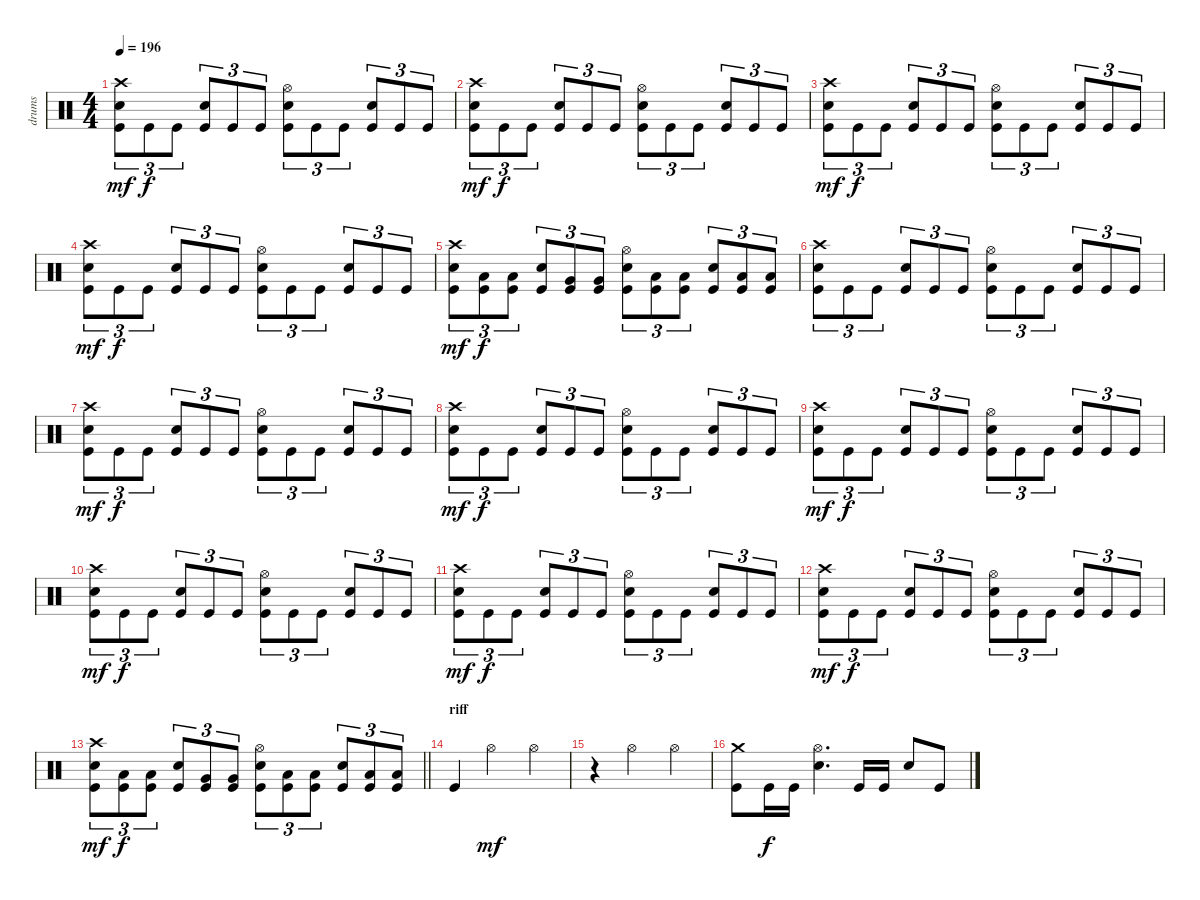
\track ("drums" "drums") {instrument percussion}
\staff {score}
\articulation defaults
\ts (4 4)
\tempo 196
\clef neutral
\ks c
("Crash high (hit)" "Electric Snare (hit)" "Kick (hit)").8{tu (3 2) dy mf} "Kick (hit)".8{tu (3 2) dy f} "Kick (hit)".8{tu (3 2)} ("Electric Snare (hit)" "Kick (hit)").8{tu (3 2)} "Kick (hit)".8{tu (3 2)} "Kick (hit)".8{tu (3 2)} ("Hi-Hat (open)" "Electric Snare (hit)" "Kick (hit)").8{tu (3 2)} "Kick (hit)".8{tu (3 2)} "Kick (hit)".8{tu (3 2)} ("Electric Snare (hit)" "Kick (hit)").8{tu (3 2)} "Kick (hit)".8{tu (3 2)} "Kick (hit)".8{tu (3 2)} |
("Crash high (hit)" "Electric Snare (hit)" "Kick (hit)").8{tu (3 2) dy mf} "Kick (hit)".8{tu (3 2) dy f} "Kick (hit)".8{tu (3 2)} ("Electric Snare (hit)" "Kick (hit)").8{tu (3 2)} "Kick (hit)".8{tu (3 2)} "Kick (hit)".8{tu (3 2)} ("Hi-Hat (open)" "Electric Snare (hit)" "Kick (hit)").8{tu (3 2)} "Kick (hit)".8{tu (3 2)} "Kick (hit)".8{tu (3 2)} ("Electric Snare (hit)" "Kick (hit)").8{tu (3 2)} "Kick (hit)".8{tu (3 2)} "Kick (hit)".8{tu (3 2)} |
("Crash high (hit)" "Electric Snare (hit)" "Kick (hit)").8{tu (3 2) dy mf} "Kick (hit)".8{tu (3 2) dy f} "Kick (hit)".8{tu (3 2)} ("Electric Snare (hit)" "Kick (hit)").8{tu (3 2)} "Kick (hit)".8{tu (3 2)} "Kick (hit)".8{tu (3 2)} ("Hi-Hat (open)" "Electric Snare (hit)" "Kick (hit)").8{tu (3 2)} "Kick (hit)".8{tu (3 2)} "Kick (hit)".8{tu (3 2)} ("Electric Snare (hit)" "Kick (hit)").8{tu (3 2)} "Kick (hit)".8{tu (3 2)} "Kick (hit)".8{tu (3 2)} |
("Crash high (hit)" "Electric Snare (hit)" "Kick (hit)").8{tu (3 2) dy mf} "Kick (hit)".8{tu (3 2) dy f} "Kick (hit)".8{tu (3 2)} ("Electric Snare (hit)" "Kick (hit)").8{tu (3 2)} "Kick (hit)".8{tu (3 2)} "Kick (hit)".8{tu (3 2)} ("Hi-Hat (open)" "Electric Snare (hit)" "Kick (hit)").8{tu (3 2)} "Kick (hit)".8{tu (3 2)} "Kick (hit)".8{tu (3 2)} ("Electric Snare (hit)" "Kick (hit)").8{tu (3 2)} "Kick (hit)".8{tu (3 2)} "Kick (hit)".8{tu (3 2)} |
("Crash high (hit)" "Electric Snare (hit)" "Kick (hit)").8{tu (3 2) dy mf} ("Low Tom (hit)" "Kick (hit)").8{tu (3 2) dy f} ("Low Tom (hit)" "Kick (hit)").8{tu (3 2)} ("Electric Snare (hit)" "Kick (hit)").8{tu (3 2)} ("Very Low Tom (hit)" "Kick (hit)").8{tu (3 2)} ("Very Low Tom (hit)" "Kick (hit)").8{tu (3 2)} ("Hi-Hat (open)" "Electric Snare (hit)" "Kick (hit)").8{tu (3 2)} ("Low Floor Tom (hit)" "Kick (hit)").8{tu (3 2)} ("Low Floor Tom (hit)" "Kick (hit)").8{tu (3 2)} ("Electric Snare (hit)" "Kick (hit)").8{tu (3 2)} ("Low Floor Tom (hit)" "Kick (hit)").8{tu (3 2)} ("Low Floor Tom (hit)" "Kick (hit)").8{tu (3 2)} |
("Crash high (hit)" "Electric Snare (hit)" "Kick (hit)").8{tu (3 2)} "Kick (hit)".8{tu (3 2)} "Kick (hit)".8{tu (3 2)} ("Electric Snare (hit)" "Kick (hit)").8{tu (3 2)} "Kick (hit)".8{tu (3 2)} "Kick (hit)".8{tu (3 2)} ("Hi-Hat (open)" "Electric Snare (hit)" "Kick (hit)").8{tu (3 2)} "Kick (hit)".8{tu (3 2)} "Kick (hit)".8{tu (3 2)} ("Electric Snare (hit)" "Kick (hit)").8{tu (3 2)} "Kick (hit)".8{tu (3 2)} "Kick (hit)".8{tu (3 2)} |
("Crash high (hit)" "Electric Snare (hit)" "Kick (hit)").8{tu (3 2) dy mf} "Kick (hit)".8{tu (3 2) dy f} "Kick (hit)".8{tu (3 2)} ("Electric Snare (hit)" "Kick (hit)").8{tu (3 2)} "Kick (hit)".8{tu (3 2)} "Kick (hit)".8{tu (3 2)} ("Hi-Hat (open)" "Electric Snare (hit)" "Kick (hit)").8{tu (3 2)} "Kick (hit)".8{tu (3 2)} "Kick (hit)".8{tu (3 2)} ("Electric Snare (hit)" "Kick (hit)").8{tu (3 2)} "Kick (hit)".8{tu (3 2)} "Kick (hit)".8{tu (3 2)} |
("Crash high (hit)" "Electric Snare (hit)" "Kick (hit)").8{tu (3 2) dy mf} "Kick (hit)".8{tu (3 2) dy f} "Kick (hit)".8{tu (3 2)} ("Electric Snare (hit)" "Kick (hit)").8{tu (3 2)} "Kick (hit)".8{tu (3 2)} "Kick (hit)".8{tu (3 2)} ("Hi-Hat (open)" "Electric Snare (hit)" "Kick (hit)").8{tu (3 2)} "Kick (hit)".8{tu (3 2)} "Kick (hit)".8{tu (3 2)} ("Electric Snare (hit)" "Kick (hit)").8{tu (3 2)} "Kick (hit)".8{tu (3 2)} "Kick (hit)".8{tu (3 2)} |
("Crash high (hit)" "Electric Snare (hit)" "Kick (hit)").8{tu (3 2) dy mf} "Kick (hit)".8{tu (3 2) dy f} "Kick (hit)".8{tu (3 2)} ("Electric Snare (hit)" "Kick (hit)").8{tu (3 2)} "Kick (hit)".8{tu (3 2)} "Kick (hit)".8{tu (3 2)} ("Hi-Hat (open)" "Electric Snare (hit)" "Kick (hit)").8{tu (3 2)} "Kick (hit)".8{tu (3 2)} "Kick (hit)".8{tu (3 2)} ("Electric Snare (hit)" "Kick (hit)").8{tu (3 2)} "Kick (hit)".8{tu (3 2)} "Kick (hit)".8{tu (3 2)} |
("Crash high (hit)" "Electric Snare (hit)" "Kick (hit)").8{tu (3 2) dy mf} "Kick (hit)".8{tu (3 2) dy f} "Kick (hit)".8{tu (3 2)} ("Electric Snare (hit)" "Kick (hit)").8{tu (3 2)} "Kick (hit)".8{tu (3 2)} "Kick (hit)".8{tu (3 2)} ("Hi-Hat (open)" "Electric Snare (hit)" "Kick (hit)").8{tu (3 2)} "Kick (hit)".8{tu (3 2)} "Kick (hit)".8{tu (3 2)} ("Electric Snare (hit)" "Kick (hit)").8{tu (3 2)} "Kick (hit)".8{tu (3 2)} "Kick (hit)".8{tu (3 2)} |
("Crash high (hit)" "Electric Snare (hit)" "Kick (hit)").8{tu (3 2) dy mf} "Kick (hit)".8{tu (3 2) dy f} "Kick (hit)".8{tu (3 2)} ("Electric Snare (hit)" "Kick (hit)").8{tu (3 2)} "Kick (hit)".8{tu (3 2)} "Kick (hit)".8{tu (3 2)} ("Hi-Hat (open)" "Electric Snare (hit)" "Kick (hit)").8{tu (3 2)} "Kick (hit)".8{tu (3 2)} "Kick (hit)".8{tu (3 2)} ("Electric Snare (hit)" "Kick (hit)").8{tu (3 2)} "Kick (hit)".8{tu (3 2)} "Kick (hit)".8{tu (3 2)} |
("Crash high (hit)" "Electric Snare (hit)" "Kick (hit)").8{tu (3 2) dy mf} "Kick (hit)".8{tu (3 2) dy f} "Kick (hit)".8{tu (3 2)} ("Electric Snare (hit)" "Kick (hit)").8{tu (3 2)} "Kick (hit)".8{tu (3 2)} "Kick (hit)".8{tu (3 2)} ("Hi-Hat (open)" "Electric Snare (hit)" "Kick (hit)").8{tu (3 2)} "Kick (hit)".8{tu (3 2)} "Kick (hit)".8{tu (3 2)} ("Electric Snare (hit)" "Kick (hit)").8{tu (3 2)} "Kick (hit)".8{tu (3 2)} "Kick (hit)".8{tu (3 2)} |
\barLineRight lightlight
("Crash high (hit)" "Electric Snare (hit)" "Kick (hit)").8{tu (3 2) dy mf} ("Low Tom (hit)" "Kick (hit)").8{tu (3 2) dy f} ("Low Tom (hit)" "Kick (hit)").8{tu (3 2)} ("Electric Snare (hit)" "Kick (hit)").8{tu (3 2)} ("Very Low Tom (hit)" "Kick (hit)").8{tu (3 2)} ("Very Low Tom (hit)" "Kick (hit)").8{tu (3 2)} ("Hi-Hat (open)" "Electric Snare (hit)" "Kick (hit)").8{tu (3 2)} ("Low Floor Tom (hit)" "Kick (hit)").8{tu (3 2)} ("Low Floor Tom (hit)" "Kick (hit)").8{tu (3 2)} ("Electric Snare (hit)" "Kick (hit)").8{tu (3 2)} ("Low Floor Tom (hit)" "Kick (hit)").8{tu (3 2)} ("Low Floor Tom (hit)" "Kick (hit)").8{tu (3 2)} |
\section ("" "riff ")
"Kick (hit)".4 "Hi-Hat (open)".2{dy mf} "Hi-Hat (open)".4 |
r.4 "Hi-Hat (open)".2 "Hi-Hat (open)".4 |
("Crash medium (hit)" "Kick (hit)").8 "Kick (hit)".16{dy f} "Kick (hit)".16 ("Hi-Hat (open)" "Electric Snare (hit)").4{d} "Kick (hit)".16 "Kick (hit)".16 "Electric Snare (hit)".8 "Kick (hit)".8
